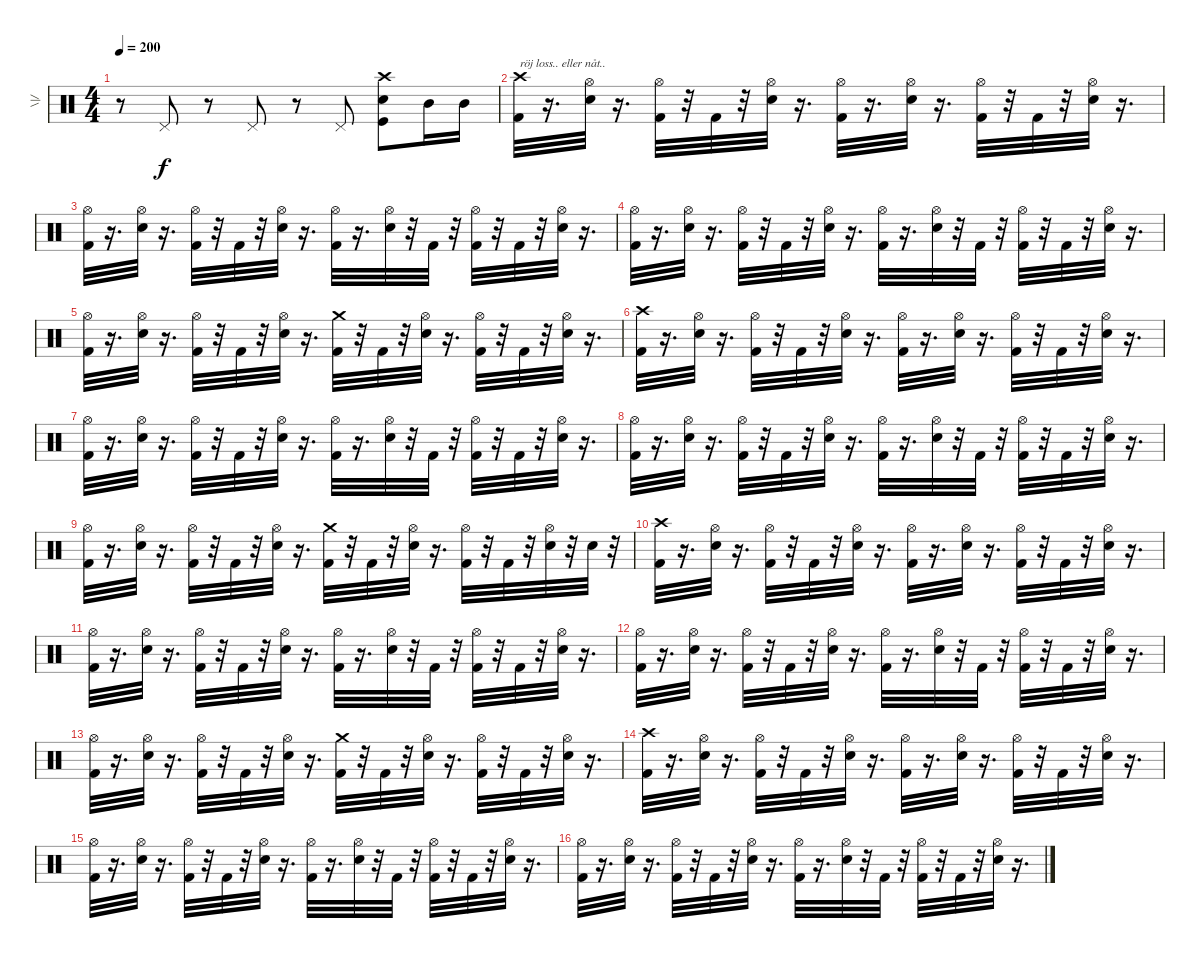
\track ("  \\|/" "  \\|/") {instrument percussion}
\staff {score}
\articulation defaults
\ts (4 4)
\tempo 200
\clef neutral
\ks c
r.8{dy f} "Pedal Hi-Hat (hit)".8 r.8 "Pedal Hi-Hat (hit)".8 r.8 "Pedal Hi-Hat (hit)".8 ("Crash high (hit)" "Snare (hit) 2" "Kick (hit)").8 "Mid Tom (hit)".16 "Mid Tom (hit)".16 |
\section ("" "")
("Kick (hit) 2" "Crash high (hit)").32{txt "röj loss.. eller nåt.."} r.16{d} ("Snare (hit) 2" "Hi-Hat (open)").32 r.16{d} ("Kick (hit) 2" "Hi-Hat (open)").32 r.32 "Kick (hit) 2".32 r.32 ("Hi-Hat (open)" "Snare (hit) 2").32 r.16{d} ("Kick (hit) 2" "Hi-Hat (open)").32 r.16{d} ("Snare (hit) 2" "Hi-Hat (open)").32 r.16{d} ("Kick (hit) 2" "Hi-Hat (open)").32 r.32 "Kick (hit) 2".32 r.32 ("Snare (hit) 2" "Hi-Hat (open)").32 r.16{d} |
("Hi-Hat (open)" "Kick (hit) 2").32 r.16{d} ("Hi-Hat (open)" "Snare (hit) 2").32 r.16{d} ("Hi-Hat (open)" "Kick (hit) 2").32 r.32 "Kick (hit) 2".32 r.32 ("Hi-Hat (open)" "Snare (hit) 2").32 r.16{d} ("Hi-Hat (open)" "Kick (hit) 2").32 r.16{d} ("Hi-Hat (open)" "Snare (hit) 2").32 r.32 "Kick (hit) 2".32 r.32 ("Hi-Hat (open)" "Kick (hit) 2").32 r.32 "Kick (hit) 2".32 r.32 ("Snare (hit) 2" "Hi-Hat (open)").32 r.16{d} |
("Hi-Hat (open)" "Kick (hit) 2").32 r.16{d} ("Snare (hit) 2" "Hi-Hat (open)").32 r.16{d} ("Kick (hit) 2" "Hi-Hat (open)").32 r.32 "Kick (hit) 2".32 r.32 ("Hi-Hat (open)" "Snare (hit) 2").32 r.16{d} ("Kick (hit) 2" "Hi-Hat (open)").32 r.16{d} ("Snare (hit) 2" "Hi-Hat (open)").32 r.32 "Kick (hit) 2".32 r.32 ("Hi-Hat (open)" "Kick (hit) 2").32 r.32 "Kick (hit) 2".32 r.32 ("Snare (hit) 2" "Hi-Hat (open)").32 r.16{d} |
("Kick (hit) 2" "Hi-Hat (open)").32 r.16{d} ("Hi-Hat (open)" "Snare (hit) 2").32 r.16{d} ("Kick (hit) 2" "Hi-Hat (open)").32 r.32 "Kick (hit) 2".32 r.32 ("Snare (hit) 2" "Hi-Hat (open)").32 r.16{d} ("Crash medium (hit)" "Kick (hit) 2").32 r.32 "Kick (hit) 2".32 r.32 ("Hi-Hat (open)" "Snare (hit) 2").32 r.16{d} ("Hi-Hat (open)" "Kick (hit) 2").32 r.32 "Kick (hit) 2".32 r.32 ("Snare (hit) 2" "Hi-Hat (open)").32 r.16{d} |
("Crash high (hit)" "Kick (hit) 2").32 r.16{d} ("Snare (hit) 2" "Hi-Hat (open)").32 r.16{d} ("Kick (hit) 2" "Hi-Hat (open)").32 r.32 "Kick (hit) 2".32 r.32 ("Hi-Hat (open)" "Snare (hit) 2").32 r.16{d} ("Kick (hit) 2" "Hi-Hat (open)").32 r.16{d} ("Hi-Hat (open)" "Snare (hit) 2").32 r.16{d} ("Kick (hit) 2" "Hi-Hat (open)").32 r.32 "Kick (hit) 2".32 r.32 ("Snare (hit) 2" "Hi-Hat (open)").32 r.16{d} |
("Hi-Hat (open)" "Kick (hit) 2").32 r.16{d} ("Snare (hit) 2" "Hi-Hat (open)").32 r.16{d} ("Hi-Hat (open)" "Kick (hit) 2").32 r.32 "Kick (hit) 2".32 r.32 ("Snare (hit) 2" "Hi-Hat (open)").32 r.16{d} ("Hi-Hat (open)" "Kick (hit) 2").32 r.16{d} ("Snare (hit) 2" "Hi-Hat (open)").32 r.32 "Kick (hit) 2".32 r.32 ("Kick (hit) 2" "Hi-Hat (open)").32 r.32 "Kick (hit) 2".32 r.32 ("Hi-Hat (open)" "Snare (hit) 2").32 r.16{d} |
("Hi-Hat (open)" "Kick (hit) 2").32 r.16{d} ("Hi-Hat (open)" "Snare (hit) 2").32 r.16{d} ("Hi-Hat (open)" "Kick (hit) 2").32 r.32 "Kick (hit) 2".32 r.32 ("Hi-Hat (open)" "Snare (hit) 2").32 r.16{d} ("Kick (hit) 2" "Hi-Hat (open)").32 r.16{d} ("Hi-Hat (open)" "Snare (hit) 2").32 r.32 "Kick (hit) 2".32 r.32 ("Hi-Hat (open)" "Kick (hit) 2").32 r.32 "Kick (hit) 2".32 r.32 ("Snare (hit) 2" "Hi-Hat (open)").32 r.16{d} |
("Hi-Hat (open)" "Kick (hit) 2").32 r.16{d} ("Snare (hit) 2" "Hi-Hat (open)").32 r.16{d} ("Hi-Hat (open)" "Kick (hit) 2").32 r.32 "Kick (hit) 2".32 r.32 ("Snare (hit) 2" "Hi-Hat (open)").32 r.16{d} ("Crash medium (hit)" "Kick (hit) 2").32 r.32 "Kick (hit) 2".32 r.32 ("Hi-Hat (open)" "Snare (hit) 2").32 r.16{d} ("Kick (hit) 2" "Hi-Hat (open)").32 r.32 "Kick (hit) 2".32 r.32 ("Snare (hit) 2" "Hi-Hat (open)").32 r.32 "Snare (hit) 2".32 r.32 |
\section ("" "")
("Kick (hit) 2" "Crash high (hit)").32 r.16{d} ("Snare (hit) 2" "Hi-Hat (open)").32 r.16{d} ("Kick (hit) 2" "Hi-Hat (open)").32 r.32 "Kick (hit) 2".32 r.32 ("Hi-Hat (open)" "Snare (hit) 2").32 r.16{d} ("Kick (hit) 2" "Hi-Hat (open)").32 r.16{d} ("Snare (hit) 2" "Hi-Hat (open)").32 r.16{d} ("Kick (hit) 2" "Hi-Hat (open)").32 r.32 "Kick (hit) 2".32 r.32 ("Snare (hit) 2" "Hi-Hat (open)").32 r.16{d} |
("Hi-Hat (open)" "Kick (hit) 2").32 r.16{d} ("Hi-Hat (open)" "Snare (hit) 2").32 r.16{d} ("Hi-Hat (open)" "Kick (hit) 2").32 r.32 "Kick (hit) 2".32 r.32 ("Hi-Hat (open)" "Snare (hit) 2").32 r.16{d} ("Hi-Hat (open)" "Kick (hit) 2").32 r.16{d} ("Hi-Hat (open)" "Snare (hit) 2").32 r.32 "Kick (hit) 2".32 r.32 ("Hi-Hat (open)" "Kick (hit) 2").32 r.32 "Kick (hit) 2".32 r.32 ("Snare (hit) 2" "Hi-Hat (open)").32 r.16{d} |
("Hi-Hat (open)" "Kick (hit) 2").32 r.16{d} ("Snare (hit) 2" "Hi-Hat (open)").32 r.16{d} ("Kick (hit) 2" "Hi-Hat (open)").32 r.32 "Kick (hit) 2".32 r.32 ("Hi-Hat (open)" "Snare (hit) 2").32 r.16{d} ("Kick (hit) 2" "Hi-Hat (open)").32 r.16{d} ("Snare (hit) 2" "Hi-Hat (open)").32 r.32 "Kick (hit) 2".32 r.32 ("Hi-Hat (open)" "Kick (hit) 2").32 r.32 "Kick (hit) 2".32 r.32 ("Snare (hit) 2" "Hi-Hat (open)").32 r.16{d} |
("Kick (hit) 2" "Hi-Hat (open)").32 r.16{d} ("Hi-Hat (open)" "Snare (hit) 2").32 r.16{d} ("Kick (hit) 2" "Hi-Hat (open)").32 r.32 "Kick (hit) 2".32 r.32 ("Snare (hit) 2" "Hi-Hat (open)").32 r.16{d} ("Crash medium (hit)" "Kick (hit) 2").32 r.32 "Kick (hit) 2".32 r.32 ("Hi-Hat (open)" "Snare (hit) 2").32 r.16{d} ("Hi-Hat (open)" "Kick (hit) 2").32 r.32 "Kick (hit) 2".32 r.32 ("Snare (hit) 2" "Hi-Hat (open)").32 r.16{d} |
("Crash high (hit)" "Kick (hit) 2").32 r.16{d} ("Snare (hit) 2" "Hi-Hat (open)").32 r.16{d} ("Kick (hit) 2" "Hi-Hat (open)").32 r.32 "Kick (hit) 2".32 r.32 ("Hi-Hat (open)" "Snare (hit) 2").32 r.16{d} ("Kick (hit) 2" "Hi-Hat (open)").32 r.16{d} ("Hi-Hat (open)" "Snare (hit) 2").32 r.16{d} ("Kick (hit) 2" "Hi-Hat (open)").32 r.32 "Kick (hit) 2".32 r.32 ("Snare (hit) 2" "Hi-Hat (open)").32 r.16{d} |
("Hi-Hat (open)" "Kick (hit) 2").32 r.16{d} ("Snare (hit) 2" "Hi-Hat (open)").32 r.16{d} ("Hi-Hat (open)" "Kick (hit) 2").32 r.32 "Kick (hit) 2".32 r.32 ("Snare (hit) 2" "Hi-Hat (open)").32 r.16{d} ("Hi-Hat (open)" "Kick (hit) 2").32 r.16{d} ("Snare (hit) 2" "Hi-Hat (open)").32 r.32 "Kick (hit) 2".32 r.32 ("Kick (hit) 2" "Hi-Hat (open)").32 r.32 "Kick (hit) 2".32 r.32 ("Hi-Hat (open)" "Snare (hit) 2").32 r.16{d} |
("Hi-Hat (open)" "Kick (hit) 2").32 r.16{d} ("Hi-Hat (open)" "Snare (hit) 2").32 r.16{d} ("Hi-Hat (open)" "Kick (hit) 2").32 r.32 "Kick (hit) 2".32 r.32 ("Hi-Hat (open)" "Snare (hit) 2").32 r.16{d} ("Kick (hit) 2" "Hi-Hat (open)").32 r.16{d} ("Hi-Hat (open)" "Snare (hit) 2").32 r.32 "Kick (hit) 2".32 r.32 ("Hi-Hat (open)" "Kick (hit) 2").32 r.32 "Kick (hit) 2".32 r.32 ("Snare (hit) 2" "Hi-Hat (open)").32 r.16{d}
